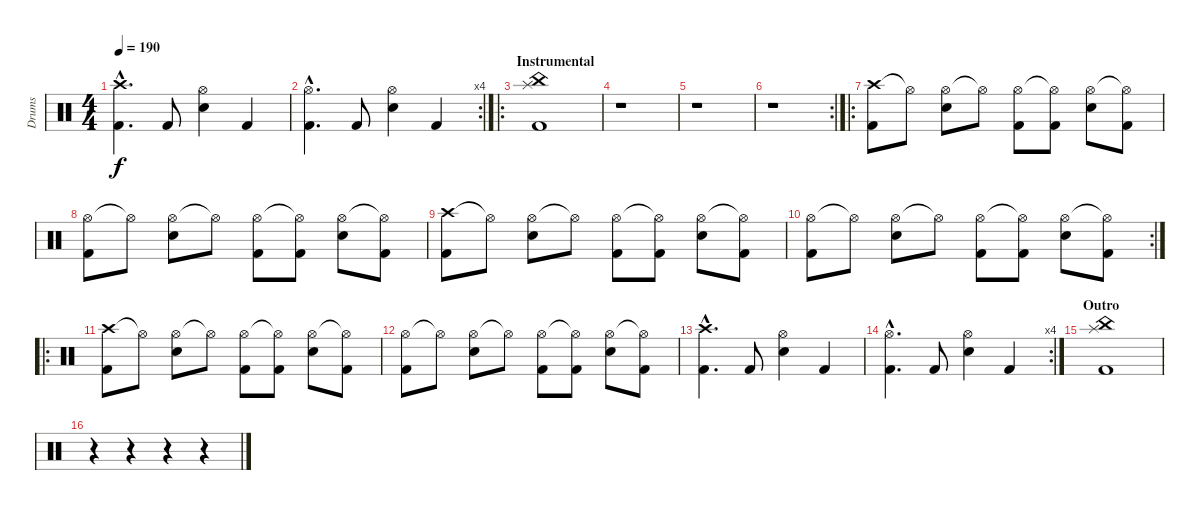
\track ("Drums" "Drums") {instrument percussion}
\staff {score}
\articulation defaults
\ts (4 4)
\tempo 190
\clef neutral
\ks c
("Crash high (hit)"{hac} "Kick (hit) 2"{hac}).4{d dy f} "Kick (hit) 2".8 ("Electric Snare (hit)" "Hi-Hat (open)").4 "Kick (hit) 2".4 |
\rc 4
("Hi-Hat (open)"{hac} "Kick (hit) 2"{hac}).4{d} "Kick (hit) 2".8 ("Electric Snare (hit)" "Hi-Hat (open)").4 "Kick (hit) 2".4 |
\ro
\section ("" "Instrumental")
("China (hit)" "Splash (hit)" "Kick (hit) 2").1 |
r.1 |
r.1 |
\rc 2
r.1 |
\ro
("Crash high (hit)" "Kick (hit) 2").8 "Hi-Hat (open)"{t}.8 ("Hi-Hat (open)" "Electric Snare (hit)").8 "Hi-Hat (open)"{t}.8 ("Hi-Hat (open)" "Kick (hit) 2").8 ("Hi-Hat (open)"{t} "Kick (hit) 2").8 ("Hi-Hat (open)" "Electric Snare (hit)").8 ("Hi-Hat (open)"{t} "Kick (hit) 2").8 |
("Hi-Hat (open)" "Kick (hit) 2").8 "Hi-Hat (open)"{t}.8 ("Hi-Hat (open)" "Electric Snare (hit)").8 "Hi-Hat (open)"{t}.8 ("Hi-Hat (open)" "Kick (hit) 2").8 ("Hi-Hat (open)"{t} "Kick (hit) 2").8 ("Hi-Hat (open)" "Electric Snare (hit)").8 ("Hi-Hat (open)"{t} "Kick (hit) 2").8 |
("Crash high (hit)" "Kick (hit) 2").8 "Hi-Hat (open)"{t}.8 ("Hi-Hat (open)" "Electric Snare (hit)").8 "Hi-Hat (open)"{t}.8 ("Hi-Hat (open)" "Kick (hit) 2").8 ("Hi-Hat (open)"{t} "Kick (hit) 2").8 ("Hi-Hat (open)" "Electric Snare (hit)").8 ("Hi-Hat (open)"{t} "Kick (hit) 2").8 |
\rc 2
("Hi-Hat (open)" "Kick (hit) 2").8 "Hi-Hat (open)"{t}.8 ("Hi-Hat (open)" "Electric Snare (hit)").8 "Hi-Hat (open)"{t}.8 ("Hi-Hat (open)" "Kick (hit) 2").8 ("Hi-Hat (open)"{t} "Kick (hit) 2").8 ("Hi-Hat (open)" "Electric Snare (hit)").8 ("Hi-Hat (open)"{t} "Kick (hit) 2").8 |
\ro
("Crash high (hit)" "Kick (hit) 2").8 "Hi-Hat (open)"{t}.8 ("Hi-Hat (open)" "Electric Snare (hit)").8 "Hi-Hat (open)"{t}.8 ("Hi-Hat (open)" "Kick (hit) 2").8 ("Hi-Hat (open)"{t} "Kick (hit) 2").8 ("Hi-Hat (open)" "Electric Snare (hit)").8 ("Hi-Hat (open)"{t} "Kick (hit) 2").8 |
("Hi-Hat (open)" "Kick (hit) 2").8 "Hi-Hat (open)"{t}.8 ("Hi-Hat (open)" "Electric Snare (hit)").8 "Hi-Hat (open)"{t}.8 ("Hi-Hat (open)" "Kick (hit) 2").8 ("Hi-Hat (open)"{t} "Kick (hit) 2").8 ("Hi-Hat (open)" "Electric Snare (hit)").8 ("Hi-Hat (open)"{t} "Kick (hit) 2").8 |
("Crash high (hit)"{hac} "Kick (hit) 2"{hac}).4{d} "Kick (hit) 2".8 ("Electric Snare (hit)" "Hi-Hat (open)").4 "Kick (hit) 2".4 |
\rc 4
("Hi-Hat (open)"{hac} "Kick (hit) 2"{hac}).4{d} "Kick (hit) 2".8 ("Electric Snare (hit)" "Hi-Hat (open)").4 "Kick (hit) 2".4 |
\section ("" "Outro")
("China (hit)" "Splash (hit)" "Kick (hit) 2").1 |
r.4 r.4 r.4 r.4
